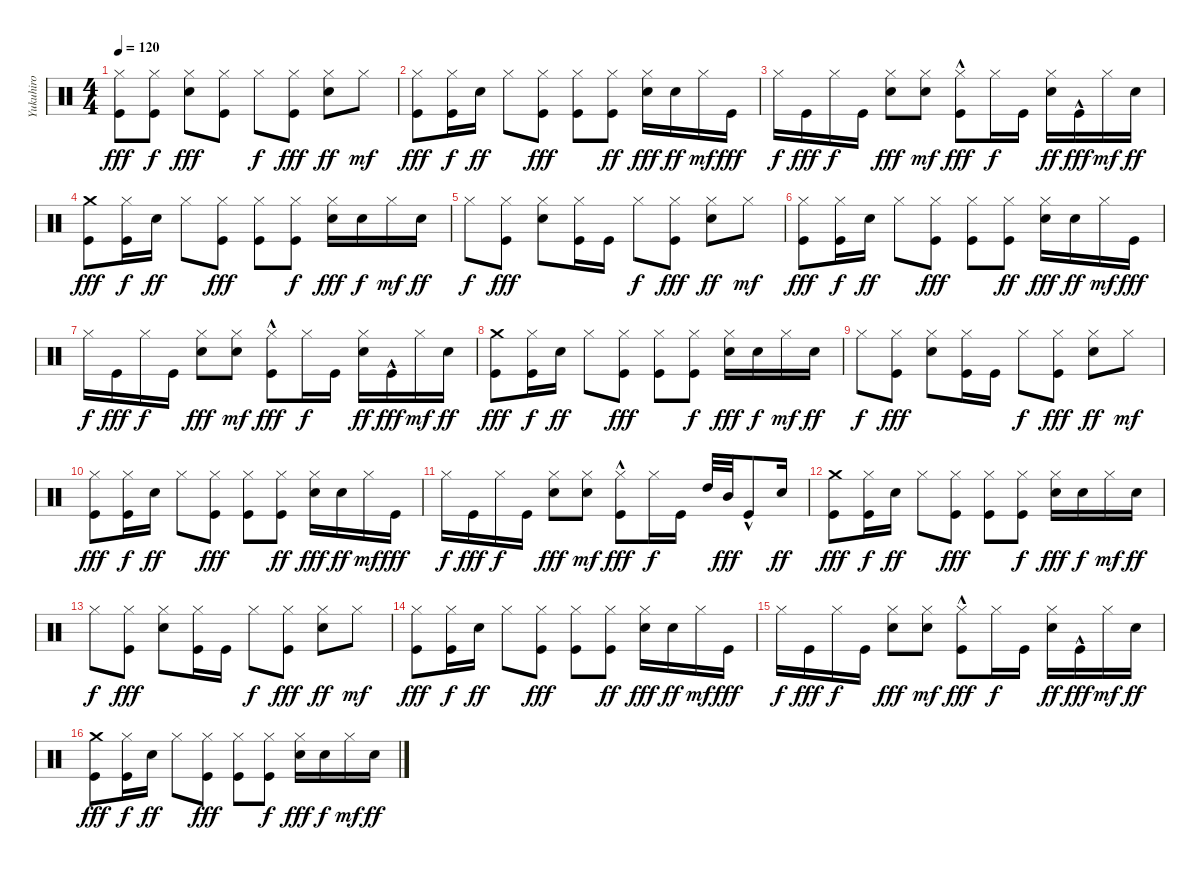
\track ("Yukuhiro" "Yukuhiro") {instrument percussion}
\staff {score}
\articulation defaults
\ts (4 4)
\tempo 120
\clef neutral
\ks c
("Hi-Hat (closed)" "Kick (hit)").8{dy fff} ("Hi-Hat (closed)" "Kick (hit)").8{dy f} ("Electric Snare (hit)" "Hi-Hat (closed)").8{dy fff} ("Hi-Hat (closed)" "Kick (hit)").8 "Hi-Hat (closed)".8{dy f} ("Hi-Hat (closed)" "Kick (hit)").8{dy fff} ("Hi-Hat (closed)" "Electric Snare (hit)").8{dy ff} "Hi-Hat (closed)".8{dy mf} |
("Hi-Hat (closed)" "Kick (hit)").8{dy fff} ("Kick (hit)" "Hi-Hat (closed)").16{dy f} "Electric Snare (hit)".16{dy ff} "Hi-Hat (closed)".8 ("Kick (hit)" "Hi-Hat (closed)").8{dy fff} ("Kick (hit)" "Hi-Hat (closed)").8 ("Kick (hit)" "Hi-Hat (closed)").8{dy ff} ("Electric Snare (hit)" "Hi-Hat (closed)").16{dy fff} "Electric Snare (hit)".16{dy ff} "Hi-Hat (closed)".16{dy mf} "Kick (hit)".16{dy fff} |
"Hi-Hat (closed)".16{dy f} "Kick (hit)".16{dy fff} "Hi-Hat (closed)".16{dy f} "Kick (hit)".16 ("Electric Snare (hit)" "Hi-Hat (closed)").8{dy fff} ("Electric Snare (hit)" "Hi-Hat (closed)").8{dy mf} ("Kick (hit)"{hac} "Hi-Hat (closed)").8{dy fff} "Hi-Hat (closed)".16{dy f} "Kick (hit)".16 ("Hi-Hat (closed)" "Electric Snare (hit)").16{dy ff} "Kick (hit)"{hac}.16{dy fff} "Hi-Hat (closed)".16{dy mf} "Electric Snare (hit)".16{dy ff} |
("Crash medium (hit)" "Kick (hit)").8{dy fff} ("Hi-Hat (closed)" "Kick (hit)").16{dy f} "Electric Snare (hit)".16{dy ff} "Hi-Hat (closed)".8 ("Kick (hit)" "Hi-Hat (closed)").8{dy fff} ("Kick (hit)" "Hi-Hat (closed)").8 ("Hi-Hat (closed)" "Kick (hit)").8{dy f} ("Electric Snare (hit)" "Hi-Hat (closed)").16{dy fff} "Electric Snare (hit)".16{dy f} "Hi-Hat (closed)".16{dy mf} "Electric Snare (hit)".16{dy ff} |
"Hi-Hat (closed)".8{dy f} ("Hi-Hat (closed)" "Kick (hit)").8{dy fff} ("Electric Snare (hit)" "Hi-Hat (closed)").8 ("Hi-Hat (closed)" "Kick (hit)").16 "Kick (hit)".16 "Hi-Hat (closed)".8{dy f} ("Hi-Hat (closed)" "Kick (hit)").8{dy fff} ("Hi-Hat (closed)" "Electric Snare (hit)").8{dy ff} "Hi-Hat (closed)".8{dy mf} |
("Hi-Hat (closed)" "Kick (hit)").8{dy fff} ("Kick (hit)" "Hi-Hat (closed)").16{dy f} "Electric Snare (hit)".16{dy ff} "Hi-Hat (closed)".8 ("Kick (hit)" "Hi-Hat (closed)").8{dy fff} ("Kick (hit)" "Hi-Hat (closed)").8 ("Kick (hit)" "Hi-Hat (closed)").8{dy ff} ("Electric Snare (hit)" "Hi-Hat (closed)").16{dy fff} "Electric Snare (hit)".16{dy ff} "Hi-Hat (closed)".16{dy mf} "Kick (hit)".16{dy fff} |
"Hi-Hat (closed)".16{dy f} "Kick (hit)".16{dy fff} "Hi-Hat (closed)".16{dy f} "Kick (hit)".16 ("Electric Snare (hit)" "Hi-Hat (closed)").8{dy fff} ("Electric Snare (hit)" "Hi-Hat (closed)").8{dy mf} ("Kick (hit)"{hac} "Hi-Hat (closed)").8{dy fff} "Hi-Hat (closed)".16{dy f} "Kick (hit)".16 ("Hi-Hat (closed)" "Electric Snare (hit)").16{dy ff} "Kick (hit)"{hac}.16{dy fff} "Hi-Hat (closed)".16{dy mf} "Electric Snare (hit)".16{dy ff} |
("Crash medium (hit)" "Kick (hit)").8{dy fff} ("Hi-Hat (closed)" "Kick (hit)").16{dy f} "Electric Snare (hit)".16{dy ff} "Hi-Hat (closed)".8 ("Kick (hit)" "Hi-Hat (closed)").8{dy fff} ("Kick (hit)" "Hi-Hat (closed)").8 ("Hi-Hat (closed)" "Kick (hit)").8{dy f} ("Electric Snare (hit)" "Hi-Hat (closed)").16{dy fff} "Electric Snare (hit)".16{dy f} "Hi-Hat (closed)".16{dy mf} "Electric Snare (hit)".16{dy ff} |
"Hi-Hat (closed)".8{dy f} ("Hi-Hat (closed)" "Kick (hit)").8{dy fff} ("Electric Snare (hit)" "Hi-Hat (closed)").8 ("Hi-Hat (closed)" "Kick (hit)").16 "Kick (hit)".16 "Hi-Hat (closed)".8{dy f} ("Hi-Hat (closed)" "Kick (hit)").8{dy fff} ("Hi-Hat (closed)" "Electric Snare (hit)").8{dy ff} "Hi-Hat (closed)".8{dy mf} |
("Hi-Hat (closed)" "Kick (hit)").8{dy fff} ("Kick (hit)" "Hi-Hat (closed)").16{dy f} "Electric Snare (hit)".16{dy ff} "Hi-Hat (closed)".8 ("Kick (hit)" "Hi-Hat (closed)").8{dy fff} ("Kick (hit)" "Hi-Hat (closed)").8 ("Kick (hit)" "Hi-Hat (closed)").8{dy ff} ("Electric Snare (hit)" "Hi-Hat (closed)").16{dy fff} "Electric Snare (hit)".16{dy ff} "Hi-Hat (closed)".16{dy mf} "Kick (hit)".16{dy fff} |
"Hi-Hat (closed)".16{dy f} "Kick (hit)".16{dy fff} "Hi-Hat (closed)".16{dy f} "Kick (hit)".16 ("Electric Snare (hit)" "Hi-Hat (closed)").8{dy fff} ("Electric Snare (hit)" "Hi-Hat (closed)").8{dy mf} ("Kick (hit)"{hac} "Hi-Hat (closed)").8{dy fff} "Hi-Hat (closed)".16{dy f} "Kick (hit)".16 "High Tom (hit)".32 "Mid Tom (hit)".32{dy fff} "Kick (hit)"{hac}.8 "Electric Snare (hit)".16{dy ff} |
("Crash medium (hit)" "Kick (hit)").8{dy fff} ("Hi-Hat (closed)" "Kick (hit)").16{dy f} "Electric Snare (hit)".16{dy ff} "Hi-Hat (closed)".8 ("Kick (hit)" "Hi-Hat (closed)").8{dy fff} ("Kick (hit)" "Hi-Hat (closed)").8 ("Hi-Hat (closed)" "Kick (hit)").8{dy f} ("Electric Snare (hit)" "Hi-Hat (closed)").16{dy fff} "Electric Snare (hit)".16{dy f} "Hi-Hat (closed)".16{dy mf} "Electric Snare (hit)".16{dy ff} |
"Hi-Hat (closed)".8{dy f} ("Hi-Hat (closed)" "Kick (hit)").8{dy fff} ("Electric Snare (hit)" "Hi-Hat (closed)").8 ("Hi-Hat (closed)" "Kick (hit)").16 "Kick (hit)".16 "Hi-Hat (closed)".8{dy f} ("Hi-Hat (closed)" "Kick (hit)").8{dy fff} ("Hi-Hat (closed)" "Electric Snare (hit)").8{dy ff} "Hi-Hat (closed)".8{dy mf} |
("Hi-Hat (closed)" "Kick (hit)").8{dy fff} ("Kick (hit)" "Hi-Hat (closed)").16{dy f} "Electric Snare (hit)".16{dy ff} "Hi-Hat (closed)".8 ("Kick (hit)" "Hi-Hat (closed)").8{dy fff} ("Kick (hit)" "Hi-Hat (closed)").8 ("Kick (hit)" "Hi-Hat (closed)").8{dy ff} ("Electric Snare (hit)" "Hi-Hat (closed)").16{dy fff} "Electric Snare (hit)".16{dy ff} "Hi-Hat (closed)".16{dy mf} "Kick (hit)".16{dy fff} |
"Hi-Hat (closed)".16{dy f} "Kick (hit)".16{dy fff} "Hi-Hat (closed)".16{dy f} "Kick (hit)".16 ("Electric Snare (hit)" "Hi-Hat (closed)").8{dy fff} ("Electric Snare (hit)" "Hi-Hat (closed)").8{dy mf} ("Kick (hit)"{hac} "Hi-Hat (closed)").8{dy fff} "Hi-Hat (closed)".16{dy f} "Kick (hit)".16 ("Hi-Hat (closed)" "Electric Snare (hit)").16{dy ff} "Kick (hit)"{hac}.16{dy fff} "Hi-Hat (closed)".16{dy mf} "Electric Snare (hit)".16{dy ff} |
("Crash medium (hit)" "Kick (hit)").8{dy fff} ("Hi-Hat (closed)" "Kick (hit)").16{dy f} "Electric Snare (hit)".16{dy ff} "Hi-Hat (closed)".8 ("Kick (hit)" "Hi-Hat (closed)").8{dy fff} ("Kick (hit)" "Hi-Hat (closed)").8 ("Hi-Hat (closed)" "Kick (hit)").8{dy f} ("Electric Snare (hit)" "Hi-Hat (closed)").16{dy fff} "Electric Snare (hit)".16{dy f} "Hi-Hat (closed)".16{dy mf} "Electric Snare (hit)".16{dy ff}
